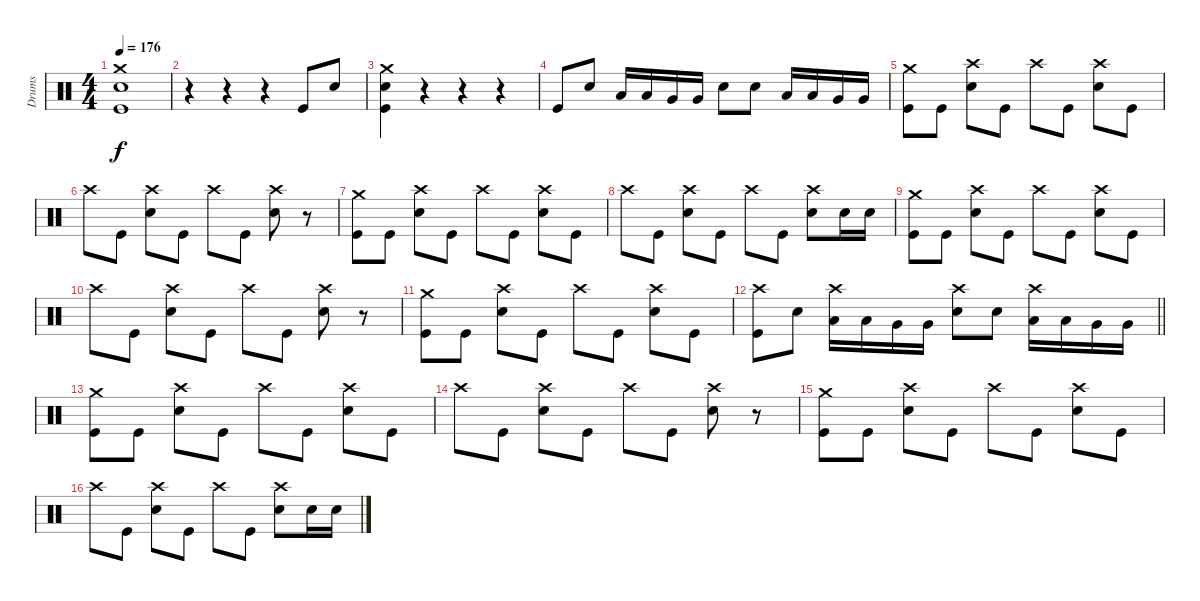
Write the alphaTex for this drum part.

\track ("Drums" "Drums") {instrument percussion}
\staff {score}
\articulation defaults
\ts (4 4)
\tempo 176
\clef neutral
\ks c
("Crash medium (hit)" "Electric Snare (hit)" "Kick (hit)").1{dy f} |
r.4 r.4 r.4 "Kick (hit)".8 "Electric Snare (hit)".8 |
("Crash medium (hit)" "Electric Snare (hit)" "Kick (hit)").4 r.4 r.4 r.4 |
"Kick (hit)".8 "Electric Snare (hit)".8 "Low Tom (hit)".16 "Low Tom (hit)".16 "Very Low Tom (hit)".16 "Very Low Tom (hit)".16 "Electric Snare (hit)".8 "Electric Snare (hit)".8 "Low Tom (hit)".16 "Low Tom (hit)".16 "Very Low Tom (hit)".16 "Very Low Tom (hit)".16 |
("Crash medium (hit)" "Kick (hit)").8 "Kick (hit)".8 ("Crash high (hit)" "Electric Snare (hit)").8 "Kick (hit)".8 "Crash high (hit)".8 "Kick (hit)".8 ("Crash high (hit)" "Electric Snare (hit)").8 "Kick (hit)".8 |
"Crash high (hit)".8 "Kick (hit)".8 ("Crash high (hit)" "Electric Snare (hit)").8 "Kick (hit)".8 "Crash high (hit)".8 "Kick (hit)".8 ("Crash high (hit)" "Electric Snare (hit)").8 r.8 |
("Crash medium (hit)" "Kick (hit)").8 "Kick (hit)".8 ("Crash high (hit)" "Electric Snare (hit)").8 "Kick (hit)".8 "Crash high (hit)".8 "Kick (hit)".8 ("Crash high (hit)" "Electric Snare (hit)").8 "Kick (hit)".8 |
"Crash high (hit)".8 "Kick (hit)".8 ("Crash high (hit)" "Electric Snare (hit)").8 "Kick (hit)".8 "Crash high (hit)".8 "Kick (hit)".8 ("Crash high (hit)" "Electric Snare (hit)").8 "Electric Snare (hit)".16 "Electric Snare (hit)".16 |
("Crash medium (hit)" "Kick (hit)").8 "Kick (hit)".8 ("Crash high (hit)" "Electric Snare (hit)").8 "Kick (hit)".8 "Crash high (hit)".8 "Kick (hit)".8 ("Crash high (hit)" "Electric Snare (hit)").8 "Kick (hit)".8 |
"Crash high (hit)".8 "Kick (hit)".8 ("Crash high (hit)" "Electric Snare (hit)").8 "Kick (hit)".8 "Crash high (hit)".8 "Kick (hit)".8 ("Crash high (hit)" "Electric Snare (hit)").8 r.8 |
("Crash medium (hit)" "Kick (hit)").8 "Kick (hit)".8 ("Crash high (hit)" "Electric Snare (hit)").8 "Kick (hit)".8 "Crash high (hit)".8 "Kick (hit)".8 ("Crash high (hit)" "Electric Snare (hit)").8 "Kick (hit)".8 |
\barLineRight lightlight
("Crash high (hit)" "Kick (hit)").8 "Electric Snare (hit)".8 ("Crash high (hit)" "Low Tom (hit)").16 "Low Tom (hit)".16 "Very Low Tom (hit)".16 "Very Low Tom (hit)".16 ("Crash high (hit)" "Electric Snare (hit)").8 "Electric Snare (hit)".8 ("Crash high (hit)" "Low Tom (hit)").16 "Low Tom (hit)".16 "Very Low Tom (hit)".16 "Very Low Tom (hit)".16 |
("Crash medium (hit)" "Kick (hit)").8 "Kick (hit)".8 ("Crash high (hit)" "Electric Snare (hit)").8 "Kick (hit)".8 "Crash high (hit)".8 "Kick (hit)".8 ("Crash high (hit)" "Electric Snare (hit)").8 "Kick (hit)".8 |
"Crash high (hit)".8 "Kick (hit)".8 ("Crash high (hit)" "Electric Snare (hit)").8 "Kick (hit)".8 "Crash high (hit)".8 "Kick (hit)".8 ("Crash high (hit)" "Electric Snare (hit)").8 r.8 |
("Crash medium (hit)" "Kick (hit)").8 "Kick (hit)".8 ("Crash high (hit)" "Electric Snare (hit)").8 "Kick (hit)".8 "Crash high (hit)".8 "Kick (hit)".8 ("Crash high (hit)" "Electric Snare (hit)").8 "Kick (hit)".8 |
"Crash high (hit)".8 "Kick (hit)".8 ("Crash high (hit)" "Electric Snare (hit)").8 "Kick (hit)".8 "Crash high (hit)".8 "Kick (hit)".8 ("Crash high (hit)" "Electric Snare (hit)").8 "Electric Snare (hit)".16 "Electric Snare (hit)".16
